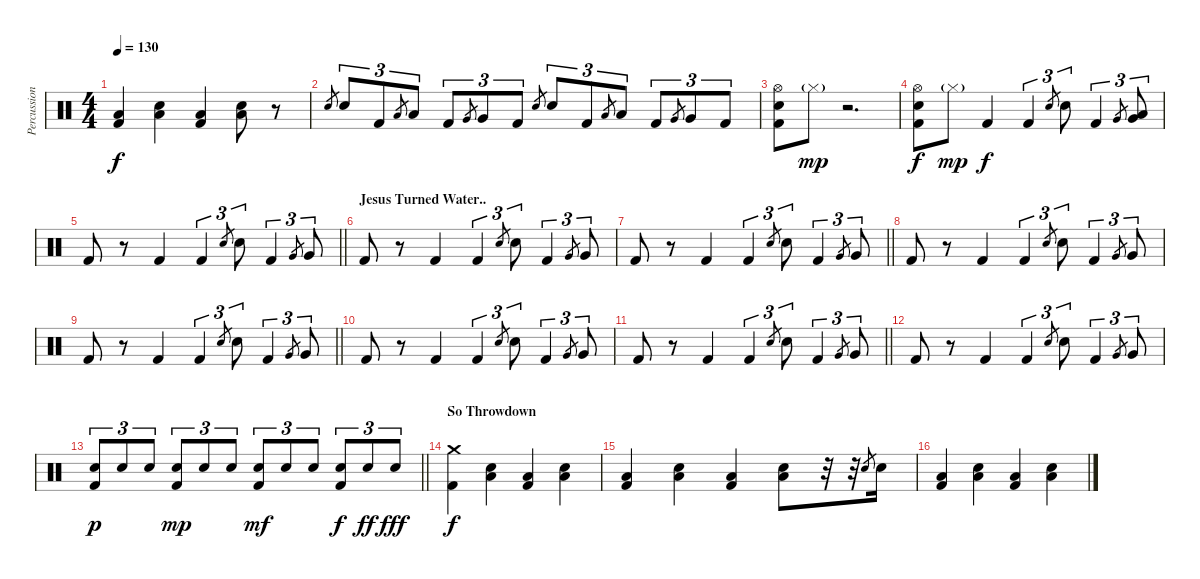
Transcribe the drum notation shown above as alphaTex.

\track ("Percussion" "Percussion") {instrument percussion}
\staff {score}
\articulation defaults
\ts (4 4)
\tempo 130
\clef neutral
\ks c
("Low Floor Tom (hit)" "Kick (hit) 2").4{dy f} ("Low Floor Tom (hit)" "Electric Snare (hit)").4 ("Low Floor Tom (hit)" "Kick (hit) 2").4 ("Low Floor Tom (hit)" "Electric Snare (hit)").8 r.8 |
"Electric Snare (hit)".8{gr} "Electric Snare (hit)".8{tu (3 2)} "Kick (hit) 2".8{tu (3 2)} "Low Tom (hit)".8{gr} "Low Tom (hit)".8{tu (3 2)} "Kick (hit) 2".8{tu (3 2)} "Very Low Tom (hit)".8{gr} "Very Low Tom (hit)".8{tu (3 2)} "Kick (hit) 2".8{tu (3 2)} "Electric Snare (hit)".8{gr} "Electric Snare (hit)".8{tu (3 2)} "Kick (hit) 2".8{tu (3 2)} "Low Tom (hit)".8{gr} "Low Tom (hit)".8{tu (3 2)} "Kick (hit) 2".8{tu (3 2)} "Very Low Tom (hit)".8{gr} "Very Low Tom (hit)".8{tu (3 2)} "Kick (hit) 2".8{tu (3 2)} |
("Electric Snare (hit)" "Hi-Hat (open)" "Kick (hit) 2").8 "Hi-Hat (closed)"{g}.8{dy mp} r.2{d} |
("Electric Snare (hit)" "Hi-Hat (open)" "Kick (hit) 2").8{dy f} "Hi-Hat (closed)"{g}.8{dy mp} "Kick (hit) 2".4{dy f} "Kick (hit) 2".4{tu (3 2)} "Electric Snare (hit)".8{gr} "Electric Snare (hit)".8{tu (3 2)} "Kick (hit) 2".4{tu (3 2)} "Very Low Tom (hit)".8{gr} ("Low Floor Tom (hit)" "Very Low Tom (hit)").8{tu (3 2)} |
\barLineRight lightlight "Kick (hit) 2".8
r.8 "Kick (hit) 2".4 "Kick (hit) 2".4{tu (3 2)} "Electric Snare (hit)".8{gr} "Electric Snare (hit)".8{tu (3 2)} "Kick (hit) 2".4{tu (3 2)} "Very Low Tom (hit)".8{gr} "Very Low Tom (hit)".8{tu (3 2)} |
\section ("" "Jesus Turned Water..")
"Kick (hit) 2".8 r.8 "Kick (hit) 2".4 "Kick (hit) 2".4{tu (3 2)} "Electric Snare (hit)".8{gr} "Electric Snare (hit)".8{tu (3 2)} "Kick (hit) 2".4{tu (3 2)} "Very Low Tom (hit)".8{gr} "Very Low Tom (hit)".8{tu (3 2)} |
\barLineRight lightlight "Kick (hit) 2".8
r.8 "Kick (hit) 2".4 "Kick (hit) 2".4{tu (3 2)} "Electric Snare (hit)".8{gr} "Electric Snare (hit)".8{tu (3 2)} "Kick (hit) 2".4{tu (3 2)} "Very Low Tom (hit)".8{gr} "Very Low Tom (hit)".8{tu (3 2)} |
"Kick (hit) 2".8 r.8 "Kick (hit) 2".4 "Kick (hit) 2".4{tu (3 2)} "Electric Snare (hit)".8{gr} "Electric Snare (hit)".8{tu (3 2)} "Kick (hit) 2".4{tu (3 2)} "Very Low Tom (hit)".8{gr} "Very Low Tom (hit)".8{tu (3 2)} |
\barLineRight lightlight "Kick (hit) 2".8
r.8 "Kick (hit) 2".4 "Kick (hit) 2".4{tu (3 2)} "Electric Snare (hit)".8{gr} "Electric Snare (hit)".8{tu (3 2)} "Kick (hit) 2".4{tu (3 2)} "Very Low Tom (hit)".8{gr} "Very Low Tom (hit)".8{tu (3 2)} |
"Kick (hit) 2".8 r.8 "Kick (hit) 2".4 "Kick (hit) 2".4{tu (3 2)} "Electric Snare (hit)".8{gr} "Electric Snare (hit)".8{tu (3 2)} "Kick (hit) 2".4{tu (3 2)} "Very Low Tom (hit)".8{gr} "Very Low Tom (hit)".8{tu (3 2)} |
\barLineRight lightlight "Kick (hit) 2".8
r.8 "Kick (hit) 2".4 "Kick (hit) 2".4{tu (3 2)} "Electric Snare (hit)".8{gr} "Electric Snare (hit)".8{tu (3 2)} "Kick (hit) 2".4{tu (3 2)} "Very Low Tom (hit)".8{gr} "Very Low Tom (hit)".8{tu (3 2)} |
"Kick (hit) 2".8 r.8 "Kick (hit) 2".4 "Kick (hit) 2".4{tu (3 2)} "Electric Snare (hit)".8{gr} "Electric Snare (hit)".8{tu (3 2)} "Kick (hit) 2".4{tu (3 2)} "Very Low Tom (hit)".8{gr} "Very Low Tom (hit)".8{tu (3 2)} |
\barLineRight lightlight
("Electric Snare (hit)" "Kick (hit) 2").8{tu (3 2) dy p} "Electric Snare (hit)".8{tu (3 2)} "Electric Snare (hit)".8{tu (3 2)} ("Electric Snare (hit)" "Kick (hit) 2").8{tu (3 2) dy mp} "Electric Snare (hit)".8{tu (3 2)} "Electric Snare (hit)".8{tu (3 2)} ("Electric Snare (hit)" "Kick (hit) 2").8{tu (3 2) dy mf} "Electric Snare (hit)".8{tu (3 2)} "Electric Snare (hit)".8{tu (3 2)} ("Electric Snare (hit)" "Kick (hit) 2").8{tu (3 2) dy f} "Electric Snare (hit)".8{tu (3 2) dy ff} "Electric Snare (hit)".8{tu (3 2) dy fff} |
\section ("" "So Throwdown")
("Crash medium (hit)" "Kick (hit) 2").4{dy f} ("Low Floor Tom (hit)" "Electric Snare (hit)").4 ("Low Floor Tom (hit)" "Kick (hit) 2").4 ("Low Floor Tom (hit)" "Electric Snare (hit)").4 |
("Low Floor Tom (hit)" "Kick (hit) 2").4 ("Low Floor Tom (hit)" "Electric Snare (hit)").4 ("Low Floor Tom (hit)" "Kick (hit) 2").4 ("Low Floor Tom (hit)" "Electric Snare (hit)").8 r.32 r.32 "Electric Snare (hit)".8{gr} "Electric Snare (hit)".16 |
("Low Floor Tom (hit)" "Kick (hit) 2").4 ("Low Floor Tom (hit)" "Electric Snare (hit)").4 ("Low Floor Tom (hit)" "Kick (hit) 2").4 ("Low Floor Tom (hit)" "Electric Snare (hit)").4
